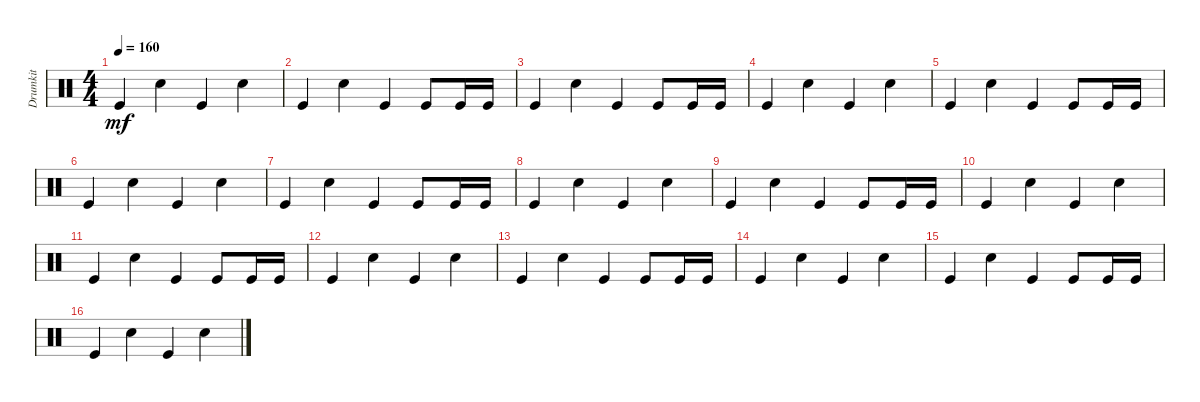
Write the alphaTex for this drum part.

\track ("Drumkit" "Drumkit") {instrument percussion}
\staff {score}
\articulation defaults
\ts (4 4)
\tempo 160
\clef neutral
\ks c "Kick (hit)".4{dy mf} "Hand Clap (hit)".4 "Kick (hit)".4 "Hand Clap (hit)".4
|
"Kick (hit)".4 "Hand Clap (hit)".4 "Kick (hit)".4 "Kick (hit)".8 "Kick (hit)".16 "Kick (hit)".16 |
"Kick (hit)".4 "Hand Clap (hit)".4 "Kick (hit)".4 "Kick (hit)".8 "Kick (hit)".16 "Kick (hit)".16 |
"Kick (hit)".4 "Hand Clap (hit)".4 "Kick (hit)".4 "Hand Clap (hit)".4 |
"Kick (hit)".4 "Hand Clap (hit)".4 "Kick (hit)".4 "Kick (hit)".8 "Kick (hit)".16 "Kick (hit)".16 |
"Kick (hit)".4 "Hand Clap (hit)".4 "Kick (hit)".4 "Hand Clap (hit)".4 |
"Kick (hit)".4 "Hand Clap (hit)".4 "Kick (hit)".4 "Kick (hit)".8 "Kick (hit)".16 "Kick (hit)".16 |
"Kick (hit)".4 "Hand Clap (hit)".4 "Kick (hit)".4 "Hand Clap (hit)".4 |
"Kick (hit)".4 "Hand Clap (hit)".4 "Kick (hit)".4 "Kick (hit)".8 "Kick (hit)".16 "Kick (hit)".16 |
"Kick (hit)".4 "Hand Clap (hit)".4 "Kick (hit)".4 "Hand Clap (hit)".4 |
"Kick (hit)".4 "Hand Clap (hit)".4 "Kick (hit)".4 "Kick (hit)".8 "Kick (hit)".16 "Kick (hit)".16 |
"Kick (hit)".4 "Hand Clap (hit)".4 "Kick (hit)".4 "Hand Clap (hit)".4 |
"Kick (hit)".4 "Hand Clap (hit)".4 "Kick (hit)".4 "Kick (hit)".8 "Kick (hit)".16 "Kick (hit)".16 |
"Kick (hit)".4 "Hand Clap (hit)".4 "Kick (hit)".4 "Hand Clap (hit)".4 |
"Kick (hit)".4 "Hand Clap (hit)".4 "Kick (hit)".4 "Kick (hit)".8 "Kick (hit)".16 "Kick (hit)".16 |
"Kick (hit)".4 "Hand Clap (hit)".4 "Kick (hit)".4 "Hand Clap (hit)".4
